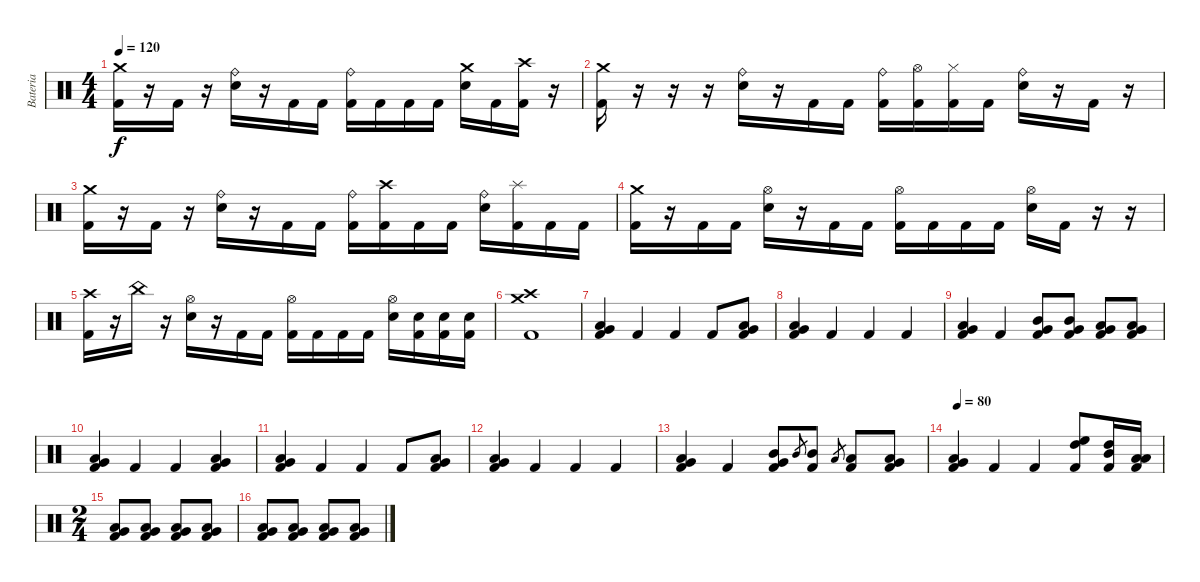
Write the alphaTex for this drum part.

\track ("Bateria" "Bateria") {instrument percussion}
\staff {score}
\articulation defaults
\ts (4 4)
\tempo 120
\clef neutral
\ks c
("Crash medium (hit)" "Kick (hit) 2").16{dy f} r.16 "Kick (hit) 2".16 r.16 ("Ride (bell)" "Electric Snare (hit)").16 r.16 "Kick (hit) 2".16 "Kick (hit) 2".16 ("Ride (bell)" "Kick (hit) 2").16 "Kick (hit) 2".16 "Kick (hit) 2".16 "Kick (hit) 2".16 ("Crash medium (hit)" "Electric Snare (hit)").16 "Kick (hit) 2".16 ("Crash high (hit)" "Kick (hit) 2").16 r.16 |
("Crash medium (hit)" "Kick (hit) 2").16 r.16 r.16 r.16 ("Ride (bell)" "Electric Snare (hit)").16 r.16 "Kick (hit) 2".16 "Kick (hit) 2".16 ("Ride (bell)" "Kick (hit) 2").16 ("Hi-Hat (open)" "Kick (hit) 2").16 ("Hi-Hat (closed)" "Kick (hit) 2").16 "Kick (hit) 2".16 ("Ride (bell)" "Electric Snare (hit)").16 r.16 "Kick (hit) 2".16 r.16 |
("Crash medium (hit)" "Kick (hit) 2").16 r.16 "Kick (hit) 2".16 r.16 ("Ride (bell)" "Electric Snare (hit)").16 r.16 "Kick (hit) 2".16 "Kick (hit) 2".16 ("Ride (bell)" "Kick (hit) 2").16 ("Crash high (hit)" "Kick (hit) 2").16 "Kick (hit) 2".16 "Kick (hit) 2".16 ("Ride (bell)" "Electric Snare (hit)").16 ("Splash (hit)" "Kick (hit) 2").16 "Kick (hit) 2".16 "Kick (hit) 2".16 |
("Crash medium (hit)" "Kick (hit) 2").16 r.16 "Kick (hit) 2".16 "Kick (hit) 2".16 ("Hi-Hat (open)" "Electric Snare (hit)").16 r.16 "Kick (hit) 2".16 "Kick (hit) 2".16 ("Hi-Hat (open)" "Kick (hit) 2").16 "Kick (hit) 2".16 "Kick (hit) 2".16 "Kick (hit) 2".16 ("Hi-Hat (open)" "Electric Snare (hit)").16 "Kick (hit) 2".16 r.16 r.16 |
("Crash high (hit)" "Kick (hit) 2").16 r.16 "China (hit)".16 r.16 ("Hi-Hat (open)" "Electric Snare (hit)").16 r.16 "Kick (hit) 2".16 "Kick (hit) 2".16 ("Hi-Hat (open)" "Kick (hit) 2").16 "Kick (hit) 2".16 "Kick (hit) 2".16 "Kick (hit) 2".16 ("Hi-Hat (open)" "Electric Snare (hit)").16 ("Electric Snare (hit)" "Kick (hit) 2").16 ("Electric Snare (hit)" "Kick (hit) 2").16 ("Electric Snare (hit)" "Kick (hit) 2").16 |
("Crash medium (hit)" "Crash high (hit)" "Kick (hit) 2").1 |
("Very Low Tom (hit)" "Low Floor Tom (hit)" "Kick (hit) 2").4 "Kick (hit) 2".4 "Kick (hit) 2".4 "Kick (hit) 2".8 ("Very Low Tom (hit)" "Low Floor Tom (hit)" "Kick (hit) 2").8 |
("Very Low Tom (hit)" "Low Floor Tom (hit)" "Kick (hit) 2").4 "Kick (hit) 2".4 "Kick (hit) 2".4 "Kick (hit) 2".4 |
("Very Low Tom (hit)" "Low Floor Tom (hit)" "Kick (hit) 2").4 "Kick (hit) 2".4 ("Mid Tom (hit)" "Very Low Tom (hit)" "Kick (hit) 2").8 ("Mid Tom (hit)" "Very Low Tom (hit)" "Kick (hit) 2").8 ("Low Tom (hit)" "Very Low Tom (hit)" "Kick (hit) 2").8 ("Low Tom (hit)" "Very Low Tom (hit)" "Kick (hit) 2").8 |
("Very Low Tom (hit)" "Low Floor Tom (hit)" "Kick (hit) 2").4 "Kick (hit) 2".4 "Kick (hit) 2".4 ("Very Low Tom (hit)" "Low Floor Tom (hit)" "Kick (hit) 2").4 |
("Very Low Tom (hit)" "Low Floor Tom (hit)" "Kick (hit) 2").4 "Kick (hit) 2".4 "Kick (hit) 2".4 "Kick (hit) 2".8 ("Very Low Tom (hit)" "Low Floor Tom (hit)" "Kick (hit) 2").8 |
("Very Low Tom (hit)" "Low Floor Tom (hit)" "Kick (hit) 2").4 "Kick (hit) 2".4 "Kick (hit) 2".4 "Kick (hit) 2".4 |
("Very Low Tom (hit)" "Low Floor Tom (hit)" "Kick (hit) 2").4 "Kick (hit) 2".4 ("Mid Tom (hit)" "Very Low Tom (hit)" "Kick (hit) 2").8 "Mid Tom (hit)".8{gr} ("Mid Tom (hit)" "Kick (hit) 2").8 "Low Tom (hit)".8{gr} ("Low Tom (hit)" "Kick (hit) 2").8 ("Low Tom (hit)" "Very Low Tom (hit)" "Kick (hit) 2").8 |
\tempo 80
("Low Tom (hit)" "Very Low Tom (hit)" "Kick (hit) 2").4 "Kick (hit) 2".4 "Kick (hit) 2".4 ("High Floor Tom (hit)" "High Tom (hit)" "Kick (hit) 2").8 ("High Tom (hit)" "Mid Tom (hit)" "Kick (hit) 2").16 ("Low Tom (hit)" "Low Tom (hit)" "Kick (hit) 2").16 |
\ts (2 4)
("Very Low Tom (hit)" "Low Tom (hit)" "Kick (hit) 2").8 ("Very Low Tom (hit)" "Low Tom (hit)" "Kick (hit) 2").8 ("Very Low Tom (hit)" "Low Tom (hit)" "Kick (hit) 2").8 ("Very Low Tom (hit)" "Low Tom (hit)" "Kick (hit) 2").8 |
("Very Low Tom (hit)" "Low Tom (hit)" "Kick (hit) 2").8 ("Very Low Tom (hit)" "Low Tom (hit)" "Kick (hit) 2").8 ("Very Low Tom (hit)" "Low Tom (hit)" "Kick (hit) 2").8 ("Very Low Tom (hit)" "Low Tom (hit)" "Kick (hit) 2").8
